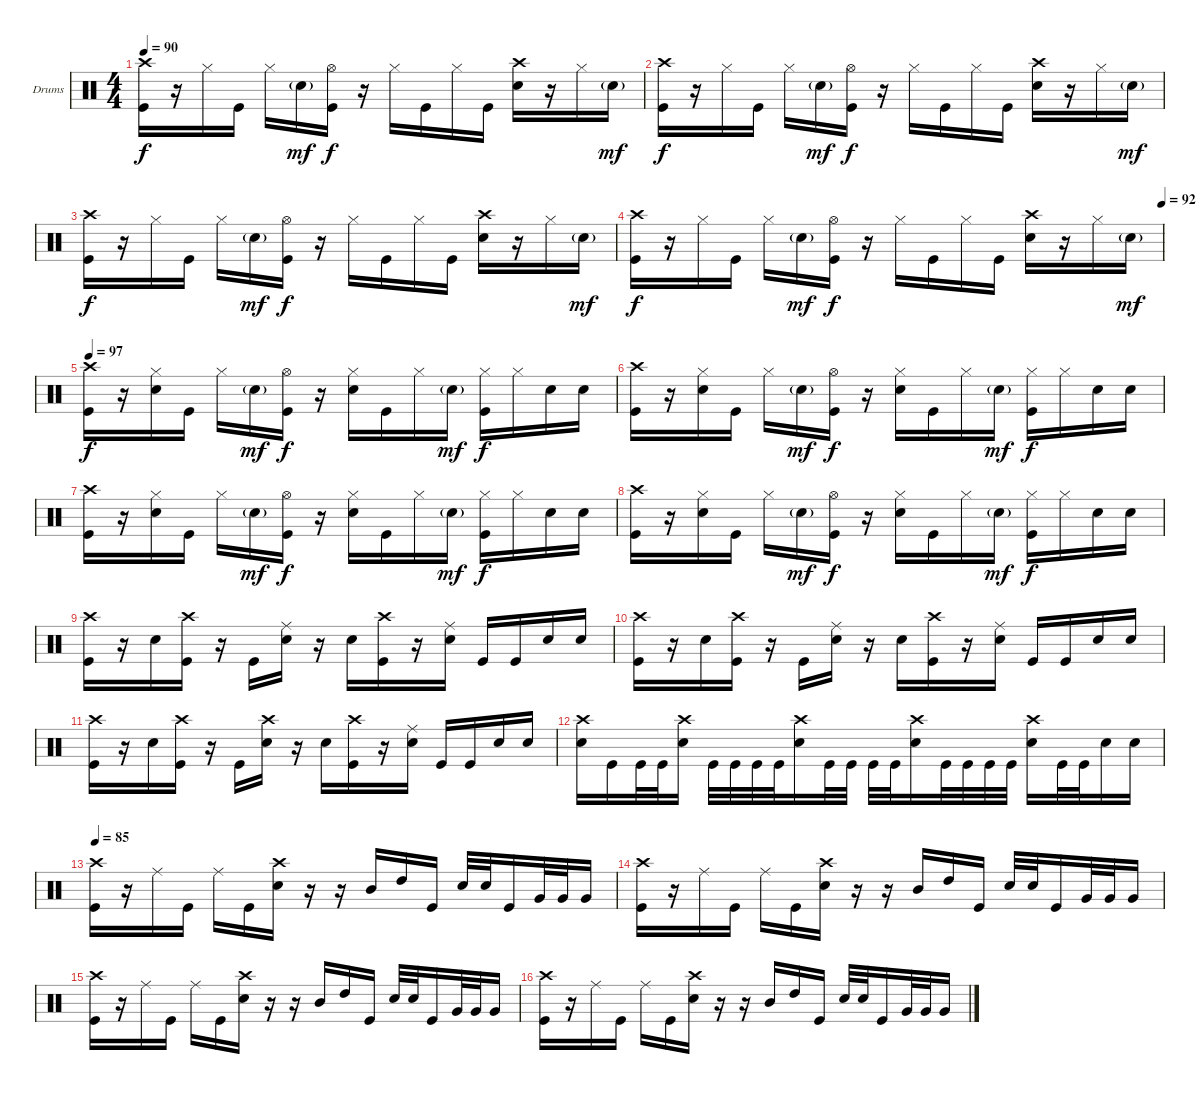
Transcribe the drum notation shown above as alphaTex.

\bracketExtendMode groupsimilarinstruments
\firstSystemTrackNameOrientation horizontal
\otherSystemsTrackNameOrientation horizontal
\track ("Drumkit" "Drums") {instrument percussion}
\staff {score}
\articulation defaults
\ts (4 4)
\tempo 90
\clef neutral
\ks c
("Crash high (hit)" "Kick (hit)").16{dy f} r.16 "Hi-Hat (closed)".16 "Kick (hit)".16 "Hi-Hat (closed)".16 "Snare (hit) 2"{g}.16{dy mf} ("Hi-Hat (open)" "Kick (hit)").16{dy f} r.16 "Hi-Hat (closed)".16 "Kick (hit)".16 "Hi-Hat (closed)".16 "Kick (hit)".16 ("Crash high (hit)" "Snare (hit) 2").16 r.16 "Hi-Hat (closed)".16 "Snare (hit) 2"{g}.16{dy mf} |
("Crash high (hit)" "Kick (hit)").16{dy f} r.16 "Hi-Hat (closed)".16 "Kick (hit)".16 "Hi-Hat (closed)".16 "Snare (hit) 2"{g}.16{dy mf} ("Hi-Hat (open)" "Kick (hit)").16{dy f} r.16 "Hi-Hat (closed)".16 "Kick (hit)".16 "Hi-Hat (closed)".16 "Kick (hit)".16 ("Crash high (hit)" "Snare (hit) 2").16 r.16 "Hi-Hat (closed)".16 "Snare (hit) 2"{g}.16{dy mf} |
("Crash high (hit)" "Kick (hit)").16{dy f} r.16 "Hi-Hat (closed)".16 "Kick (hit)".16 "Hi-Hat (closed)".16 "Snare (hit) 2"{g}.16{dy mf} ("Hi-Hat (open)" "Kick (hit)").16{dy f} r.16 "Hi-Hat (closed)".16 "Kick (hit)".16 "Hi-Hat (closed)".16 "Kick (hit)".16 ("Crash high (hit)" "Snare (hit) 2").16 r.16 "Hi-Hat (closed)".16 "Snare (hit) 2"{g}.16{dy mf} |
\tempo (92 1)
("Crash high (hit)" "Kick (hit)").16{dy f} r.16 "Hi-Hat (closed)".16 "Kick (hit)".16 "Hi-Hat (closed)".16 "Snare (hit) 2"{g}.16{dy mf} ("Hi-Hat (open)" "Kick (hit)").16{dy f} r.16 "Hi-Hat (closed)".16 "Kick (hit)".16 "Hi-Hat (closed)".16 "Kick (hit)".16 ("Crash high (hit)" "Snare (hit) 2").16 r.16 "Hi-Hat (closed)".16 "Snare (hit) 2"{g}.16{dy mf} |
\tempo 97
("Crash high (hit)" "Kick (hit)").16{dy f} r.16 ("Hi-Hat (closed)" "Snare (hit) 2").16 "Kick (hit)".16 "Hi-Hat (closed)".16 "Snare (hit) 2"{g}.16{dy mf} ("Hi-Hat (open)" "Kick (hit)").16{dy f} r.16 ("Hi-Hat (closed)" "Snare (hit) 2").16 "Kick (hit)".16 "Hi-Hat (closed)".16 "Snare (hit) 2"{g}.16{dy mf} ("Hi-Hat (closed)" "Kick (hit)").16{dy f} "Hi-Hat (closed)".16 "Snare (hit) 2".16 "Snare (hit) 2".16 |
("Crash high (hit)" "Kick (hit)").16 r.16 ("Hi-Hat (closed)" "Snare (hit) 2").16 "Kick (hit)".16 "Hi-Hat (closed)".16 "Snare (hit) 2"{g}.16{dy mf} ("Hi-Hat (open)" "Kick (hit)").16{dy f} r.16 ("Hi-Hat (closed)" "Snare (hit) 2").16 "Kick (hit)".16 "Hi-Hat (closed)".16 "Snare (hit) 2"{g}.16{dy mf} ("Hi-Hat (closed)" "Kick (hit)").16{dy f} "Hi-Hat (closed)".16 "Snare (hit) 2".16 "Snare (hit) 2".16 |
("Crash high (hit)" "Kick (hit)").16 r.16 ("Hi-Hat (closed)" "Snare (hit) 2").16 "Kick (hit)".16 "Hi-Hat (closed)".16 "Snare (hit) 2"{g}.16{dy mf} ("Hi-Hat (open)" "Kick (hit)").16{dy f} r.16 ("Hi-Hat (closed)" "Snare (hit) 2").16 "Kick (hit)".16 "Hi-Hat (closed)".16 "Snare (hit) 2"{g}.16{dy mf} ("Hi-Hat (closed)" "Kick (hit)").16{dy f} "Hi-Hat (closed)".16 "Snare (hit) 2".16 "Snare (hit) 2".16 |
("Crash high (hit)" "Kick (hit)").16 r.16 ("Hi-Hat (closed)" "Snare (hit) 2").16 "Kick (hit)".16 "Hi-Hat (closed)".16 "Snare (hit) 2"{g}.16{dy mf} ("Hi-Hat (open)" "Kick (hit)").16{dy f} r.16 ("Hi-Hat (closed)" "Snare (hit) 2").16 "Kick (hit)".16 "Hi-Hat (closed)".16 "Snare (hit) 2"{g}.16{dy mf} ("Hi-Hat (closed)" "Kick (hit)").16{dy f} "Hi-Hat (closed)".16 "Snare (hit) 2".16 "Snare (hit) 2".16 |
("Crash high (hit)" "Kick (hit)").16 r.16 "Snare (hit) 2".16 ("Crash high (hit)" "Kick (hit)").16 r.16 "Kick (hit)".16 ("Ride (middle)" "Snare (hit) 2").16 r.16 "Snare (hit) 2".16 ("Crash high (hit)" "Kick (hit)").16 r.16 ("Ride (middle)" "Snare (hit) 2").16 "Kick (hit)".16 "Kick (hit)".16 "Snare (hit) 2".16 "Snare (hit) 2".16 |
("Crash high (hit)" "Kick (hit)").16 r.16 "Snare (hit) 2".16 ("Crash high (hit)" "Kick (hit)").16 r.16 "Kick (hit)".16 ("Ride (middle)" "Snare (hit) 2").16 r.16 "Snare (hit) 2".16 ("Crash high (hit)" "Kick (hit)").16 r.16 ("Ride (middle)" "Snare (hit) 2").16 "Kick (hit)".16 "Kick (hit)".16 "Snare (hit) 2".16 "Snare (hit) 2".16 |
("Crash high (hit)" "Kick (hit)").16 r.16 "Snare (hit) 2".16 ("Crash high (hit)" "Kick (hit)").16 r.16 "Kick (hit)".16 ("Crash high (hit)" "Snare (hit) 2").16 r.16 "Snare (hit) 2".16 ("Crash high (hit)" "Kick (hit)").16 r.16 ("Ride (middle)" "Snare (hit) 2").16 "Kick (hit)".16 "Kick (hit)".16 "Snare (hit) 2".16 "Snare (hit) 2".16 |
("Crash high (hit)" "Snare (hit) 2").16 "Kick (hit)".16 "Kick (hit)".32 "Kick (hit)".32 ("Crash high (hit)" "Snare (hit) 2").16 "Kick (hit)".32 "Kick (hit)".32 "Kick (hit)".32 "Kick (hit)".32 ("Crash high (hit)" "Snare (hit) 2").16 "Kick (hit)".32 "Kick (hit)".32 "Kick (hit)".32 "Kick (hit)".32 ("Crash high (hit)" "Snare (hit) 2").16 "Kick (hit)".32 "Kick (hit)".32 "Kick (hit)".32 "Kick (hit)".32 ("Crash high (hit)" "Snare (hit) 2").16 "Kick (hit)".32 "Kick (hit)".32 "Snare (hit) 2".16 "Snare (hit) 2".16 |
\tempo 85
("Crash high (hit)" "Kick (hit)").16 r.16 "Ride (middle)".16 "Kick (hit)".16 "Ride (middle)".16 "Kick (hit)".16 ("Crash high (hit)" "Snare (hit) 2").16 r.16 r.16 "Mid Tom (hit)".16 "High Tom (hit)".16 "Kick (hit)".16 "Snare (hit) 2".32 "Snare (hit) 2".32 "Kick (hit)".16 "Very Low Tom (hit)".32 "Very Low Tom (hit)".32 "Very Low Tom (hit)".16 |
("Crash high (hit)" "Kick (hit)").16 r.16 "Ride (middle)".16 "Kick (hit)".16 "Ride (middle)".16 "Kick (hit)".16 ("Crash high (hit)" "Snare (hit) 2").16 r.16 r.16 "Mid Tom (hit)".16 "High Tom (hit)".16 "Kick (hit)".16 "Snare (hit) 2".32 "Snare (hit) 2".32 "Kick (hit)".16 "Very Low Tom (hit)".32 "Very Low Tom (hit)".32 "Very Low Tom (hit)".16 |
("Crash high (hit)" "Kick (hit)").16 r.16 "Ride (middle)".16 "Kick (hit)".16 "Ride (middle)".16 "Kick (hit)".16 ("Crash high (hit)" "Snare (hit) 2").16 r.16 r.16 "Mid Tom (hit)".16 "High Tom (hit)".16 "Kick (hit)".16 "Snare (hit) 2".32 "Snare (hit) 2".32 "Kick (hit)".16 "Very Low Tom (hit)".32 "Very Low Tom (hit)".32 "Very Low Tom (hit)".16 |
("Crash high (hit)" "Kick (hit)").16 r.16 "Ride (middle)".16 "Kick (hit)".16 "Ride (middle)".16 "Kick (hit)".16 ("Crash high (hit)" "Snare (hit) 2").16 r.16 r.16 "Mid Tom (hit)".16 "High Tom (hit)".16 "Kick (hit)".16 "Snare (hit) 2".32 "Snare (hit) 2".32 "Kick (hit)".16 "Very Low Tom (hit)".32 "Very Low Tom (hit)".32 "Very Low Tom (hit)".16
